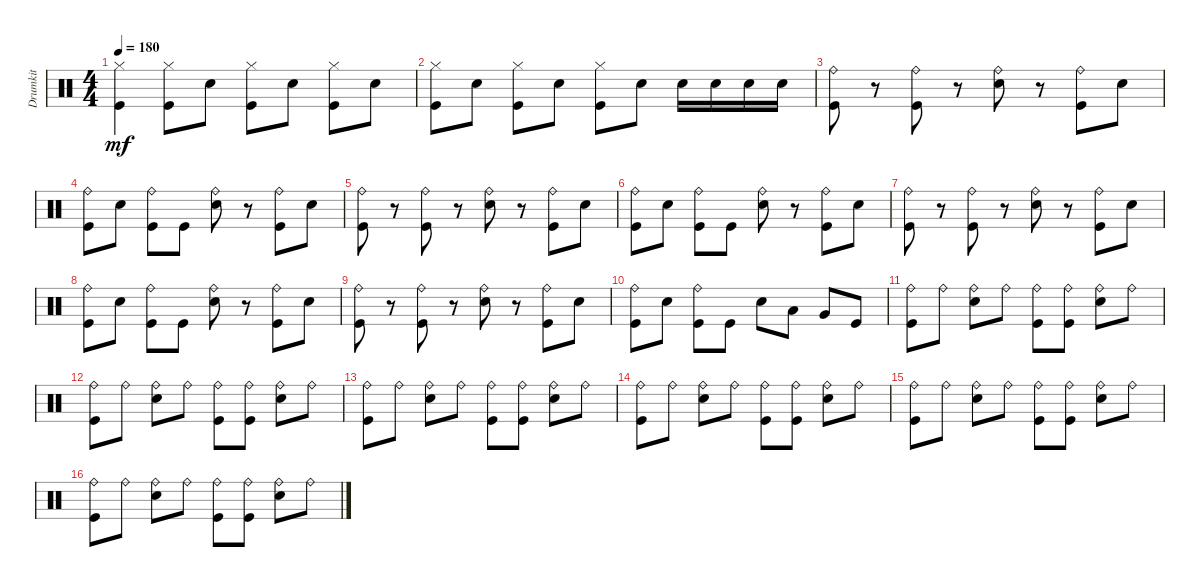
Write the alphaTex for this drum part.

\track ("Drumkit" "Drumkit") {instrument percussion}
\staff {score}
\articulation defaults
\ts (4 4)
\tempo 180
\clef neutral
\ks c
("Kick (hit)" "Hi-Hat (closed)").4{dy mf} ("Kick (hit)" "Hi-Hat (closed)").8 "Snare (hit) 2".8 ("Kick (hit)" "Hi-Hat (closed)").8 "Snare (hit) 2".8 ("Kick (hit)" "Hi-Hat (closed)").8 "Snare (hit) 2".8 |
("Kick (hit)" "Hi-Hat (closed)").8 "Snare (hit) 2".8 ("Kick (hit)" "Hi-Hat (closed)").8 "Snare (hit) 2".8 ("Kick (hit)" "Hi-Hat (closed)").8 "Snare (hit) 2".8 "Snare (hit) 2".16 "Snare (hit) 2".16 "Snare (hit) 2".16 "Snare (hit) 2".16 |
("Kick (hit)" "Ride (bell)").8 r.8 ("Ride (bell)" "Kick (hit)").8 r.8 ("Ride (bell)" "Snare (hit) 2").8 r.8 ("Ride (bell)" "Kick (hit)").8 "Snare (hit) 2".8 |
("Ride (bell)" "Kick (hit)").8 "Snare (hit) 2".8 ("Ride (bell)" "Kick (hit)").8 "Kick (hit)".8 ("Ride (bell)" "Snare (hit) 2").8 r.8 ("Ride (bell)" "Kick (hit)").8 "Snare (hit) 2".8 |
("Kick (hit)" "Ride (bell)").8 r.8 ("Ride (bell)" "Kick (hit)").8 r.8 ("Ride (bell)" "Snare (hit) 2").8 r.8 ("Ride (bell)" "Kick (hit)").8 "Snare (hit) 2".8 |
("Ride (bell)" "Kick (hit)").8 "Snare (hit) 2".8 ("Ride (bell)" "Kick (hit)").8 "Kick (hit)".8 ("Ride (bell)" "Snare (hit) 2").8 r.8 ("Ride (bell)" "Kick (hit)").8 "Snare (hit) 2".8 |
("Kick (hit)" "Ride (bell)").8 r.8 ("Ride (bell)" "Kick (hit)").8 r.8 ("Ride (bell)" "Snare (hit) 2").8 r.8 ("Ride (bell)" "Kick (hit)").8 "Snare (hit) 2".8 |
("Ride (bell)" "Kick (hit)").8 "Snare (hit) 2".8 ("Ride (bell)" "Kick (hit)").8 "Kick (hit)".8 ("Ride (bell)" "Snare (hit) 2").8 r.8 ("Ride (bell)" "Kick (hit)").8 "Snare (hit) 2".8 |
("Kick (hit)" "Ride (bell)").8 r.8 ("Ride (bell)" "Kick (hit)").8 r.8 ("Ride (bell)" "Snare (hit) 2").8 r.8 ("Ride (bell)" "Kick (hit)").8 "Snare (hit) 2".8 |
("Ride (bell)" "Kick (hit)").8 "Snare (hit) 2".8 ("Ride (bell)" "Kick (hit)").8 "Kick (hit)".8 "Snare (hit) 2".8 "Low Tom (hit)".8 "Very Low Tom (hit)".8 "Kick (hit)".8 |
("Kick (hit)" "Ride (bell)").8 "Ride (bell)".8 ("Ride (bell)" "Snare (hit) 2").8 "Ride (bell)".8 ("Ride (bell)" "Kick (hit)").8 ("Ride (bell)" "Kick (hit)").8 ("Ride (bell)" "Snare (hit) 2").8 "Ride (bell)".8 |
("Kick (hit)" "Ride (bell)").8 "Ride (bell)".8 ("Ride (bell)" "Snare (hit) 2").8 "Ride (bell)".8 ("Ride (bell)" "Kick (hit)").8 ("Ride (bell)" "Kick (hit)").8 ("Ride (bell)" "Snare (hit) 2").8 "Ride (bell)".8 |
("Kick (hit)" "Ride (bell)").8 "Ride (bell)".8 ("Ride (bell)" "Snare (hit) 2").8 "Ride (bell)".8 ("Ride (bell)" "Kick (hit)").8 ("Ride (bell)" "Kick (hit)").8 ("Ride (bell)" "Snare (hit) 2").8 "Ride (bell)".8 |
("Kick (hit)" "Ride (bell)").8 "Ride (bell)".8 ("Ride (bell)" "Snare (hit) 2").8 "Ride (bell)".8 ("Ride (bell)" "Kick (hit)").8 ("Ride (bell)" "Kick (hit)").8 ("Ride (bell)" "Snare (hit) 2").8 "Ride (bell)".8 |
("Kick (hit)" "Ride (bell)").8 "Ride (bell)".8 ("Ride (bell)" "Snare (hit) 2").8 "Ride (bell)".8 ("Ride (bell)" "Kick (hit)").8 ("Ride (bell)" "Kick (hit)").8 ("Ride (bell)" "Snare (hit) 2").8 "Ride (bell)".8 |
("Kick (hit)" "Ride (bell)").8 "Ride (bell)".8 ("Ride (bell)" "Snare (hit) 2").8 "Ride (bell)".8 ("Ride (bell)" "Kick (hit)").8 ("Ride (bell)" "Kick (hit)").8 ("Ride (bell)" "Snare (hit) 2").8 "Ride (bell)".8
